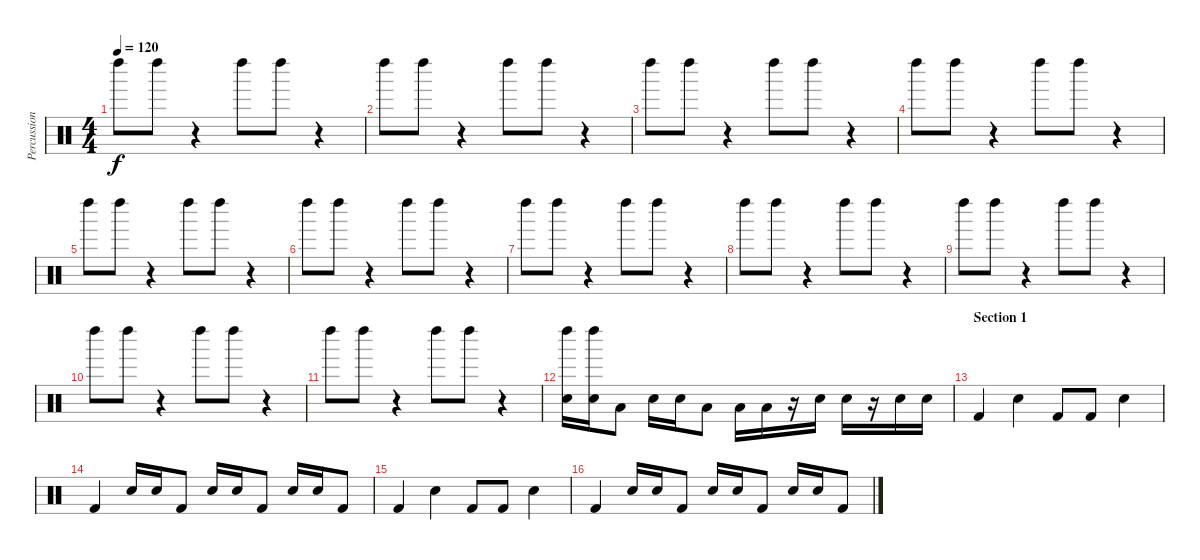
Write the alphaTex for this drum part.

\track ("Percussions" "Percussion") {instrument percussion}
\staff {score}
\articulation defaults
\ts (4 4)
\tempo 120
\clef neutral
\ks c "Left Maraca (hit)".8{dy f} "Left Maraca (hit)".8
r.4 "Left Maraca (hit)".8 "Left Maraca (hit)".8 r.4 |
"Left Maraca (hit)".8 "Left Maraca (hit)".8 r.4 "Left Maraca (hit)".8 "Left Maraca (hit)".8 r.4 |
"Left Maraca (hit)".8 "Left Maraca (hit)".8 r.4 "Left Maraca (hit)".8 "Left Maraca (hit)".8 r.4 |
"Left Maraca (hit)".8 "Left Maraca (hit)".8 r.4 "Left Maraca (hit)".8 "Left Maraca (hit)".8 r.4 |
"Left Maraca (hit)".8 "Left Maraca (hit)".8 r.4 "Left Maraca (hit)".8 "Left Maraca (hit)".8 r.4 |
"Left Maraca (hit)".8 "Left Maraca (hit)".8 r.4 "Left Maraca (hit)".8 "Left Maraca (hit)".8 r.4 |
"Left Maraca (hit)".8 "Left Maraca (hit)".8 r.4 "Left Maraca (hit)".8 "Left Maraca (hit)".8 r.4 |
"Left Maraca (hit)".8 "Left Maraca (hit)".8 r.4 "Left Maraca (hit)".8 "Left Maraca (hit)".8 r.4 |
"Left Maraca (hit)".8 "Left Maraca (hit)".8 r.4 "Left Maraca (hit)".8 "Left Maraca (hit)".8 r.4 |
"Left Maraca (hit)".8 "Left Maraca (hit)".8 r.4 "Left Maraca (hit)".8 "Left Maraca (hit)".8 r.4 |
"Left Maraca (hit)".8 "Left Maraca (hit)".8 r.4 "Left Maraca (hit)".8 "Left Maraca (hit)".8 r.4 |
("Left Maraca (hit)" "Snare (hit) 2").16 ("Left Maraca (hit)" "Snare (hit) 2").16 "Low Tom (hit)".8 "Snare (hit) 2".16 "Snare (hit) 2".16 "Low Tom (hit)".8 "Low Tom (hit)".16 "Low Tom (hit)".16 r.16 "Snare (hit) 2".16 "Snare (hit) 2".16 r.16 "Snare (hit) 2".16 "Snare (hit) 2".16 |
\section ("" "Section 1")
"Kick (hit) 2".4 "Snare (hit) 2".4 "Kick (hit) 2".8 "Kick (hit) 2".8 "Snare (hit) 2".4 |
"Kick (hit) 2".4 "Snare (hit) 2".16 "Snare (hit) 2".16 "Kick (hit) 2".8 "Snare (hit) 2".16 "Snare (hit) 2".16 "Kick (hit) 2".8 "Snare (hit) 2".16 "Snare (hit) 2".16 "Kick (hit) 2".8 |
"Kick (hit) 2".4 "Snare (hit) 2".4 "Kick (hit) 2".8 "Kick (hit) 2".8 "Snare (hit) 2".4 |
"Kick (hit) 2".4 "Snare (hit) 2".16 "Snare (hit) 2".16 "Kick (hit) 2".8 "Snare (hit) 2".16 "Snare (hit) 2".16 "Kick (hit) 2".8 "Snare (hit) 2".16 "Snare (hit) 2".16 "Kick (hit) 2".8
